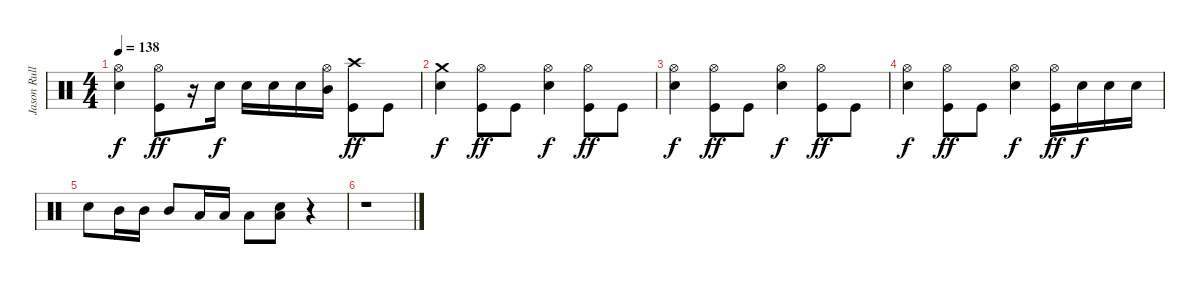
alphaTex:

\track ("Jason Rullo" "Jason Rull") {instrument percussion}
\staff {score}
\articulation defaults
\ts (4 4)
\tempo 138
\clef neutral
\ks c
("Snare (hit) 2" "Hi-Hat (open)").4{dy f} ("Kick (hit)" "Hi-Hat (open)").8{dy ff} r.16 "Snare (hit) 2".16{dy f} "Snare (hit) 2".16 "Snare (hit) 2".16 "Snare (hit) 2".16 ("Mid Tom (hit)" "Hi-Hat (open)").16 ("Kick (hit)" "Crash high (hit)").8{dy ff} "Kick (hit)".8 |
("Snare (hit) 2" "Crash medium (hit)").4{dy f} ("Kick (hit)" "Hi-Hat (open)").8{dy ff} "Kick (hit)".8 ("Snare (hit) 2" "Hi-Hat (open)").4{dy f} ("Kick (hit)" "Hi-Hat (open)").8{dy ff} "Kick (hit)".8 |
("Snare (hit) 2" "Hi-Hat (open)").4{dy f} ("Kick (hit)" "Hi-Hat (open)").8{dy ff} "Kick (hit)".8 ("Snare (hit) 2" "Hi-Hat (open)").4{dy f} ("Kick (hit)" "Hi-Hat (open)").8{dy ff} "Kick (hit)".8 |
("Snare (hit) 2" "Hi-Hat (open)").4{dy f} ("Kick (hit)" "Hi-Hat (open)").8{dy ff} "Kick (hit)".8 ("Snare (hit) 2" "Hi-Hat (open)").4{dy f} ("Kick (hit)" "Hi-Hat (open)").16{dy ff} "Snare (hit) 2".16{dy f} "Snare (hit) 2".16 "Snare (hit) 2".16 |
"Snare (hit) 2".8 "Mid Tom (hit)".16 "Mid Tom (hit)".16 "Mid Tom (hit)".8 "Low Tom (hit)".16 "Low Tom (hit)".16 "Low Tom (hit)".8 ("Snare (hit) 2" "Low Tom (hit)").8 r.4 |
r.1
